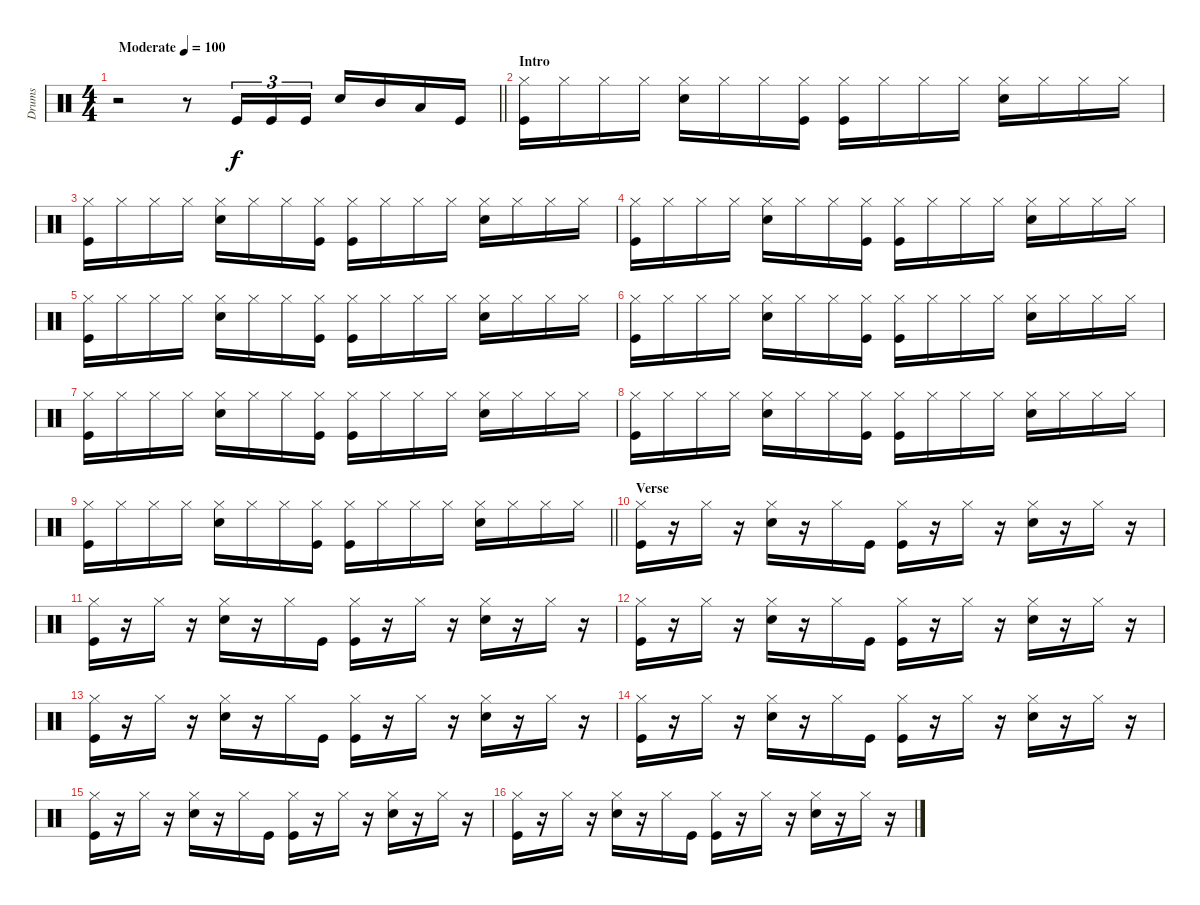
\track ("Drums" "Drums") {instrument percussion}
\staff {score}
\articulation defaults
\ts (4 4)
\tempo (100 "Moderate")
\clef neutral
\barLineRight lightlight
\ks c
r.2{dy f} r.8 "Kick (hit)".16{tu (3 2)} "Kick (hit)".16{tu (3 2)} "Kick (hit)".16{tu (3 2)} "Snare (hit) 2".16 "Mid Tom (hit)".16 "Low Tom (hit)".16 "Kick (hit)".16 |
\section ("" "Intro")
("Hi-Hat (closed)" "Kick (hit)").16 "Hi-Hat (closed)".16 "Hi-Hat (closed)".16 "Hi-Hat (closed)".16 ("Hi-Hat (closed)" "Snare (hit) 2").16 "Hi-Hat (closed)".16 "Hi-Hat (closed)".16 ("Hi-Hat (closed)" "Kick (hit)").16 ("Hi-Hat (closed)" "Kick (hit)").16 "Hi-Hat (closed)".16 "Hi-Hat (closed)".16 "Hi-Hat (closed)".16 ("Hi-Hat (closed)" "Snare (hit) 2").16 "Hi-Hat (closed)".16 "Hi-Hat (closed)".16 "Hi-Hat (closed)".16 |
("Hi-Hat (closed)" "Kick (hit)").16 "Hi-Hat (closed)".16 "Hi-Hat (closed)".16 "Hi-Hat (closed)".16 ("Hi-Hat (closed)" "Snare (hit) 2").16 "Hi-Hat (closed)".16 "Hi-Hat (closed)".16 ("Hi-Hat (closed)" "Kick (hit)").16 ("Hi-Hat (closed)" "Kick (hit)").16 "Hi-Hat (closed)".16 "Hi-Hat (closed)".16 "Hi-Hat (closed)".16 ("Hi-Hat (closed)" "Snare (hit) 2").16 "Hi-Hat (closed)".16 "Hi-Hat (closed)".16 "Hi-Hat (closed)".16 |
("Hi-Hat (closed)" "Kick (hit)").16 "Hi-Hat (closed)".16 "Hi-Hat (closed)".16 "Hi-Hat (closed)".16 ("Hi-Hat (closed)" "Snare (hit) 2").16 "Hi-Hat (closed)".16 "Hi-Hat (closed)".16 ("Hi-Hat (closed)" "Kick (hit)").16 ("Hi-Hat (closed)" "Kick (hit)").16 "Hi-Hat (closed)".16 "Hi-Hat (closed)".16 "Hi-Hat (closed)".16 ("Hi-Hat (closed)" "Snare (hit) 2").16 "Hi-Hat (closed)".16 "Hi-Hat (closed)".16 "Hi-Hat (closed)".16 |
("Hi-Hat (closed)" "Kick (hit)").16 "Hi-Hat (closed)".16 "Hi-Hat (closed)".16 "Hi-Hat (closed)".16 ("Hi-Hat (closed)" "Snare (hit) 2").16 "Hi-Hat (closed)".16 "Hi-Hat (closed)".16 ("Hi-Hat (closed)" "Kick (hit)").16 ("Hi-Hat (closed)" "Kick (hit)").16 "Hi-Hat (closed)".16 "Hi-Hat (closed)".16 "Hi-Hat (closed)".16 ("Hi-Hat (closed)" "Snare (hit) 2").16 "Hi-Hat (closed)".16 "Hi-Hat (closed)".16 "Hi-Hat (closed)".16 |
("Hi-Hat (closed)" "Kick (hit)").16 "Hi-Hat (closed)".16 "Hi-Hat (closed)".16 "Hi-Hat (closed)".16 ("Hi-Hat (closed)" "Snare (hit) 2").16 "Hi-Hat (closed)".16 "Hi-Hat (closed)".16 ("Hi-Hat (closed)" "Kick (hit)").16 ("Hi-Hat (closed)" "Kick (hit)").16 "Hi-Hat (closed)".16 "Hi-Hat (closed)".16 "Hi-Hat (closed)".16 ("Hi-Hat (closed)" "Snare (hit) 2").16 "Hi-Hat (closed)".16 "Hi-Hat (closed)".16 "Hi-Hat (closed)".16 |
("Hi-Hat (closed)" "Kick (hit)").16 "Hi-Hat (closed)".16 "Hi-Hat (closed)".16 "Hi-Hat (closed)".16 ("Hi-Hat (closed)" "Snare (hit) 2").16 "Hi-Hat (closed)".16 "Hi-Hat (closed)".16 ("Hi-Hat (closed)" "Kick (hit)").16 ("Hi-Hat (closed)" "Kick (hit)").16 "Hi-Hat (closed)".16 "Hi-Hat (closed)".16 "Hi-Hat (closed)".16 ("Hi-Hat (closed)" "Snare (hit) 2").16 "Hi-Hat (closed)".16 "Hi-Hat (closed)".16 "Hi-Hat (closed)".16 |
("Hi-Hat (closed)" "Kick (hit)").16 "Hi-Hat (closed)".16 "Hi-Hat (closed)".16 "Hi-Hat (closed)".16 ("Hi-Hat (closed)" "Snare (hit) 2").16 "Hi-Hat (closed)".16 "Hi-Hat (closed)".16 ("Hi-Hat (closed)" "Kick (hit)").16 ("Hi-Hat (closed)" "Kick (hit)").16 "Hi-Hat (closed)".16 "Hi-Hat (closed)".16 "Hi-Hat (closed)".16 ("Hi-Hat (closed)" "Snare (hit) 2").16 "Hi-Hat (closed)".16 "Hi-Hat (closed)".16 "Hi-Hat (closed)".16 |
\barLineRight lightlight
("Hi-Hat (closed)" "Kick (hit)").16 "Hi-Hat (closed)".16 "Hi-Hat (closed)".16 "Hi-Hat (closed)".16 ("Hi-Hat (closed)" "Snare (hit) 2").16 "Hi-Hat (closed)".16 "Hi-Hat (closed)".16 ("Hi-Hat (closed)" "Kick (hit)").16 ("Hi-Hat (closed)" "Kick (hit)").16 "Hi-Hat (closed)".16 "Hi-Hat (closed)".16 "Hi-Hat (closed)".16 ("Hi-Hat (closed)" "Snare (hit) 2").16 "Hi-Hat (closed)".16 "Hi-Hat (closed)".16 "Hi-Hat (closed)".16 |
\section ("" "Verse")
("Hi-Hat (closed)" "Kick (hit)").16 r.16 "Hi-Hat (closed)".16 r.16 ("Hi-Hat (closed)" "Snare (hit) 2").16 r.16 "Hi-Hat (closed)".16 "Kick (hit)".16 ("Hi-Hat (closed)" "Kick (hit)").16 r.16 "Hi-Hat (closed)".16 r.16 ("Hi-Hat (closed)" "Snare (hit) 2").16 r.16 "Hi-Hat (closed)".16 r.16 |
("Hi-Hat (closed)" "Kick (hit)").16 r.16 "Hi-Hat (closed)".16 r.16 ("Hi-Hat (closed)" "Snare (hit) 2").16 r.16 "Hi-Hat (closed)".16 "Kick (hit)".16 ("Hi-Hat (closed)" "Kick (hit)").16 r.16 "Hi-Hat (closed)".16 r.16 ("Hi-Hat (closed)" "Snare (hit) 2").16 r.16 "Hi-Hat (closed)".16 r.16 |
("Hi-Hat (closed)" "Kick (hit)").16 r.16 "Hi-Hat (closed)".16 r.16 ("Hi-Hat (closed)" "Snare (hit) 2").16 r.16 "Hi-Hat (closed)".16 "Kick (hit)".16 ("Hi-Hat (closed)" "Kick (hit)").16 r.16 "Hi-Hat (closed)".16 r.16 ("Hi-Hat (closed)" "Snare (hit) 2").16 r.16 "Hi-Hat (closed)".16 r.16 |
("Hi-Hat (closed)" "Kick (hit)").16 r.16 "Hi-Hat (closed)".16 r.16 ("Hi-Hat (closed)" "Snare (hit) 2").16 r.16 "Hi-Hat (closed)".16 "Kick (hit)".16 ("Hi-Hat (closed)" "Kick (hit)").16 r.16 "Hi-Hat (closed)".16 r.16 ("Hi-Hat (closed)" "Snare (hit) 2").16 r.16 "Hi-Hat (closed)".16 r.16 |
("Hi-Hat (closed)" "Kick (hit)").16 r.16 "Hi-Hat (closed)".16 r.16 ("Hi-Hat (closed)" "Snare (hit) 2").16 r.16 "Hi-Hat (closed)".16 "Kick (hit)".16 ("Hi-Hat (closed)" "Kick (hit)").16 r.16 "Hi-Hat (closed)".16 r.16 ("Hi-Hat (closed)" "Snare (hit) 2").16 r.16 "Hi-Hat (closed)".16 r.16 |
("Hi-Hat (closed)" "Kick (hit)").16 r.16 "Hi-Hat (closed)".16 r.16 ("Hi-Hat (closed)" "Snare (hit) 2").16 r.16 "Hi-Hat (closed)".16 "Kick (hit)".16 ("Hi-Hat (closed)" "Kick (hit)").16 r.16 "Hi-Hat (closed)".16 r.16 ("Hi-Hat (closed)" "Snare (hit) 2").16 r.16 "Hi-Hat (closed)".16 r.16 |
("Hi-Hat (closed)" "Kick (hit)").16 r.16 "Hi-Hat (closed)".16 r.16 ("Hi-Hat (closed)" "Snare (hit) 2").16 r.16 "Hi-Hat (closed)".16 "Kick (hit)".16 ("Hi-Hat (closed)" "Kick (hit)").16 r.16 "Hi-Hat (closed)".16 r.16 ("Hi-Hat (closed)" "Snare (hit) 2").16 r.16 "Hi-Hat (closed)".16 r.16
